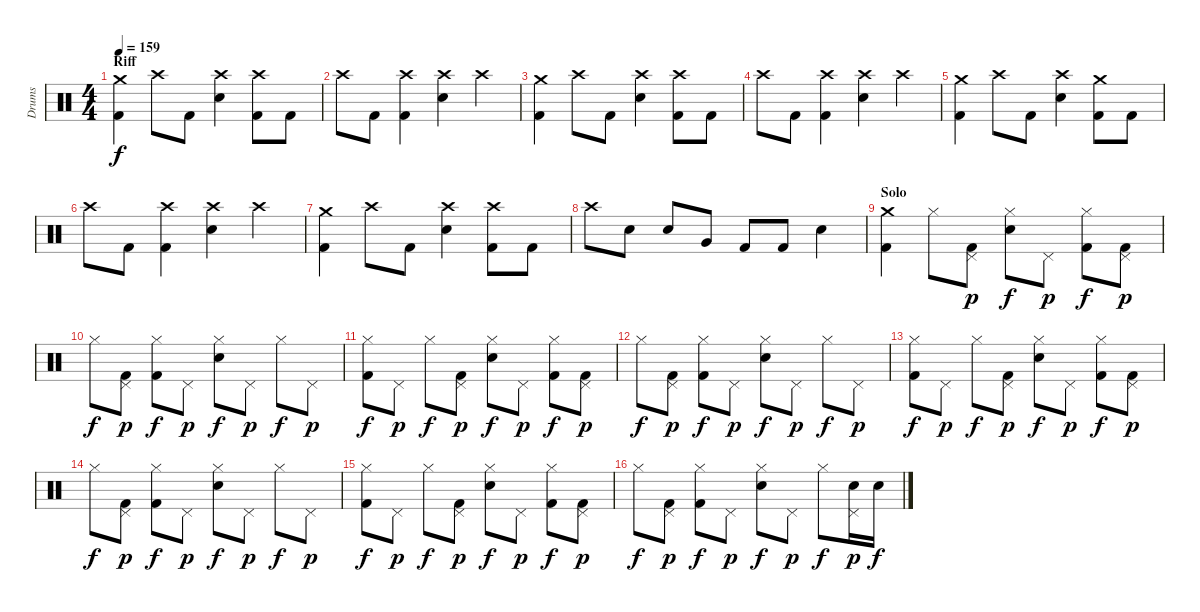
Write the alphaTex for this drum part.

\track ("Drums" "Drums") {instrument percussion}
\staff {score}
\articulation defaults
\ts (4 4)
\section ("" "Riff")
\tempo 159
\clef neutral
\ks c
("Crash medium (hit)" "Kick (hit) 2").4{dy f} "Crash high (hit)".8 "Kick (hit) 2".8 ("Crash high (hit)" "Electric Snare (hit)").4 ("Crash high (hit)" "Kick (hit) 2").8 "Kick (hit) 2".8 |
"Crash high (hit)".8 "Kick (hit) 2".8 ("Crash high (hit)" "Kick (hit) 2").4 ("Crash high (hit)" "Electric Snare (hit)").4 "Crash high (hit)".4 |
("Crash medium (hit)" "Kick (hit) 2").4 "Crash high (hit)".8 "Kick (hit) 2".8 ("Crash high (hit)" "Electric Snare (hit)").4 ("Crash high (hit)" "Kick (hit) 2").8 "Kick (hit) 2".8 |
"Crash high (hit)".8 "Kick (hit) 2".8 ("Crash high (hit)" "Kick (hit) 2").4 ("Crash high (hit)" "Electric Snare (hit)").4 "Crash high (hit)".4 |
("Crash medium (hit)" "Kick (hit) 2").4 "Crash high (hit)".8 "Kick (hit) 2".8 ("Crash high (hit)" "Electric Snare (hit)").4 ("Crash medium (hit)" "Kick (hit) 2").8 "Kick (hit) 2".8 |
"Crash high (hit)".8 "Kick (hit) 2".8 ("Crash high (hit)" "Kick (hit) 2").4 ("Crash high (hit)" "Electric Snare (hit)").4 "Crash high (hit)".4 |
("Crash medium (hit)" "Kick (hit) 2").4 "Crash high (hit)".8 "Kick (hit) 2".8 ("Crash high (hit)" "Electric Snare (hit)").4 ("Crash high (hit)" "Kick (hit) 2").8 "Kick (hit) 2".8 |
"Crash high (hit)".8 "Electric Snare (hit)".8 "Electric Snare (hit)".8 "Very Low Tom (hit)".8 "Kick (hit) 2".8 "Kick (hit) 2".8 "Electric Snare (hit)".4 |
\section ("" "Solo")
("Crash medium (hit)" "Kick (hit) 2").4 "Hi-Hat (closed)".8 ("Pedal Hi-Hat (hit)" "Kick (hit) 2").8{dy p} ("Hi-Hat (closed)" "Electric Snare (hit)").8{dy f} "Pedal Hi-Hat (hit)".8{dy p} ("Hi-Hat (closed)" "Kick (hit) 2").8{dy f} ("Pedal Hi-Hat (hit)" "Kick (hit) 2").8{dy p} |
"Hi-Hat (closed)".8{dy f} ("Pedal Hi-Hat (hit)" "Kick (hit) 2").8{dy p} ("Hi-Hat (closed)" "Kick (hit) 2").8{dy f} "Pedal Hi-Hat (hit)".8{dy p} ("Hi-Hat (closed)" "Electric Snare (hit)").8{dy f} "Pedal Hi-Hat (hit)".8{dy p} "Hi-Hat (closed)".8{dy f} "Pedal Hi-Hat (hit)".8{dy p} |
("Hi-Hat (closed)" "Kick (hit) 2").8{dy f} "Pedal Hi-Hat (hit)".8{dy p} "Hi-Hat (closed)".8{dy f} ("Pedal Hi-Hat (hit)" "Kick (hit) 2").8{dy p} ("Hi-Hat (closed)" "Electric Snare (hit)").8{dy f} "Pedal Hi-Hat (hit)".8{dy p} ("Hi-Hat (closed)" "Kick (hit) 2").8{dy f} ("Pedal Hi-Hat (hit)" "Kick (hit) 2").8{dy p} |
"Hi-Hat (closed)".8{dy f} ("Pedal Hi-Hat (hit)" "Kick (hit) 2").8{dy p} ("Hi-Hat (closed)" "Kick (hit) 2").8{dy f} "Pedal Hi-Hat (hit)".8{dy p} ("Hi-Hat (closed)" "Electric Snare (hit)").8{dy f} "Pedal Hi-Hat (hit)".8{dy p} "Hi-Hat (closed)".8{dy f} "Pedal Hi-Hat (hit)".8{dy p} |
("Hi-Hat (closed)" "Kick (hit) 2").8{dy f} "Pedal Hi-Hat (hit)".8{dy p} "Hi-Hat (closed)".8{dy f} ("Pedal Hi-Hat (hit)" "Kick (hit) 2").8{dy p} ("Hi-Hat (closed)" "Electric Snare (hit)").8{dy f} "Pedal Hi-Hat (hit)".8{dy p} ("Hi-Hat (closed)" "Kick (hit) 2").8{dy f} ("Pedal Hi-Hat (hit)" "Kick (hit) 2").8{dy p} |
"Hi-Hat (closed)".8{dy f} ("Pedal Hi-Hat (hit)" "Kick (hit) 2").8{dy p} ("Hi-Hat (closed)" "Kick (hit) 2").8{dy f} "Pedal Hi-Hat (hit)".8{dy p} ("Hi-Hat (closed)" "Electric Snare (hit)").8{dy f} "Pedal Hi-Hat (hit)".8{dy p} "Hi-Hat (closed)".8{dy f} "Pedal Hi-Hat (hit)".8{dy p} |
("Hi-Hat (closed)" "Kick (hit) 2").8{dy f} "Pedal Hi-Hat (hit)".8{dy p} "Hi-Hat (closed)".8{dy f} ("Pedal Hi-Hat (hit)" "Kick (hit) 2").8{dy p} ("Hi-Hat (closed)" "Electric Snare (hit)").8{dy f} "Pedal Hi-Hat (hit)".8{dy p} ("Hi-Hat (closed)" "Kick (hit) 2").8{dy f} ("Pedal Hi-Hat (hit)" "Kick (hit) 2").8{dy p} |
"Hi-Hat (closed)".8{dy f} ("Pedal Hi-Hat (hit)" "Kick (hit) 2").8{dy p} ("Hi-Hat (closed)" "Kick (hit) 2").8{dy f} "Pedal Hi-Hat (hit)".8{dy p} ("Hi-Hat (closed)" "Electric Snare (hit)").8{dy f} "Pedal Hi-Hat (hit)".8{dy p} "Hi-Hat (closed)".8{dy f} ("Pedal Hi-Hat (hit)" "Electric Snare (hit)").16{dy p} "Electric Snare (hit)".16{dy f}
